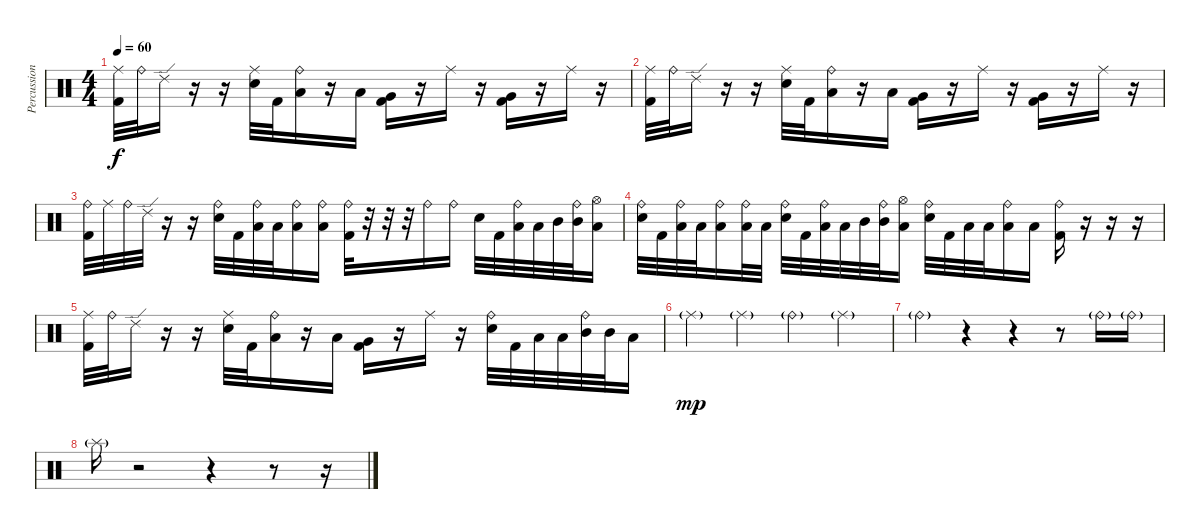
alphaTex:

\track ("Percussion" "Percussion") {instrument percussion}
\staff {score}
\articulation defaults
\ts (4 4)
\tempo 60
\clef neutral
\ks c
("Ride (middle)" "Kick (hit) 2").32{dy f} "Ride (bell)".32 "Ride (edge) 2".16 r.16 r.16 ("Ride (middle)" "Electric Snare (hit)").32 "Kick (hit) 2".32 ("Ride (bell)" "Low Tom (hit)").16 r.16 "Low Tom (hit)".16 ("Very Low Tom (hit)" "Kick (hit) 2").16 r.16 "Ride (middle)".16 r.16 ("Very Low Tom (hit)" "Kick (hit) 2").16 r.16 "Ride (middle)".16 r.16 |
("Ride (middle)" "Kick (hit) 2").32 "Ride (bell)".32 "Ride (edge) 2".16 r.16 r.16 ("Ride (middle)" "Electric Snare (hit)").32 "Kick (hit) 2".32 ("Ride (bell)" "Low Tom (hit)").16 r.16 "Low Tom (hit)".16 ("Very Low Tom (hit)" "Kick (hit) 2").16 r.16 "Ride (middle)".16 r.16 ("Very Low Tom (hit)" "Kick (hit) 2").16 r.16 "Ride (middle)".16 r.16 |
("Ride (bell)" "Kick (hit) 2").32 "Ride (middle)".32 "Ride (bell)".32 "Ride (edge) 2".32 r.16 r.16 ("Ride (bell)" "Electric Snare (hit)").32 "Kick (hit) 2".32 ("Ride (bell)" "Low Tom (hit)").32 "Low Tom (hit)".32 ("Ride (bell)" "Low Tom (hit)").16 ("Ride (bell)" "Low Tom (hit)").16 ("Ride (bell)" "Kick (hit) 2").32 r.32 r.32 r.32 "Ride (bell)".16 "Ride (bell)".16 "Electric Snare (hit)".32 "Kick (hit) 2".32 ("Ride (bell)" "Low Tom (hit)").32 "Low Tom (hit)".32 "Mid Tom (hit)".32 ("Ride (bell)" "Mid Tom (hit)").32 ("Hi-Hat (open)" "Low Tom (hit)").16 |
("Ride (bell)" "Electric Snare (hit)").32 "Kick (hit) 2".32 ("Ride (bell)" "Low Tom (hit)").32 "Low Tom (hit)".32 ("Ride (bell)" "Low Tom (hit)").16 ("Ride (bell)" "Low Tom (hit)").32 "Low Tom (hit)".32 ("Ride (bell)" "Electric Snare (hit)").32 "Kick (hit) 2".32 ("Ride (bell)" "Low Tom (hit)").32 "Low Tom (hit)".32 "Mid Tom (hit)".32 ("Ride (bell)" "Mid Tom (hit)").32 ("Hi-Hat (open)" "Low Tom (hit)").16 ("Ride (bell)" "Electric Snare (hit)").32 "Kick (hit) 2".32 "Low Tom (hit)".32 "Low Tom (hit)".32 ("Ride (bell)" "Low Tom (hit)").16 "Low Tom (hit)".16 ("Ride (bell)" "Kick (hit) 2").16 r.16 r.16 r.16 |
("Ride (middle)" "Kick (hit) 2").32 "Ride (bell)".32 "Ride (edge) 2".16 r.16 r.16 ("Ride (middle)" "Electric Snare (hit)").32 "Kick (hit) 2".32 ("Ride (bell)" "Low Tom (hit)").16 r.16 "Low Tom (hit)".16 ("Very Low Tom (hit)" "Kick (hit) 2").16 r.16 "Ride (middle)".16 r.16 ("Ride (bell)" "Electric Snare (hit)").32 "Kick (hit) 2".32 "Low Tom (hit)".32 "Low Tom (hit)".32 ("Ride (bell)" "Mid Tom (hit)").32 "Mid Tom (hit)".32 "Low Tom (hit)".16 |
"Ride (middle)"{g}.4{dy mp} "Ride (middle)"{g}.4 "Ride (bell)"{g}.4 "Ride (middle)"{g}.4 |
"Ride (bell)"{g}.4 r.4 r.4 r.8 "Ride (bell)"{g}.16 "Ride (bell)"{g}.16 |
"Splash (hit)"{g}.16 r.2 r.4 r.8 r.16
